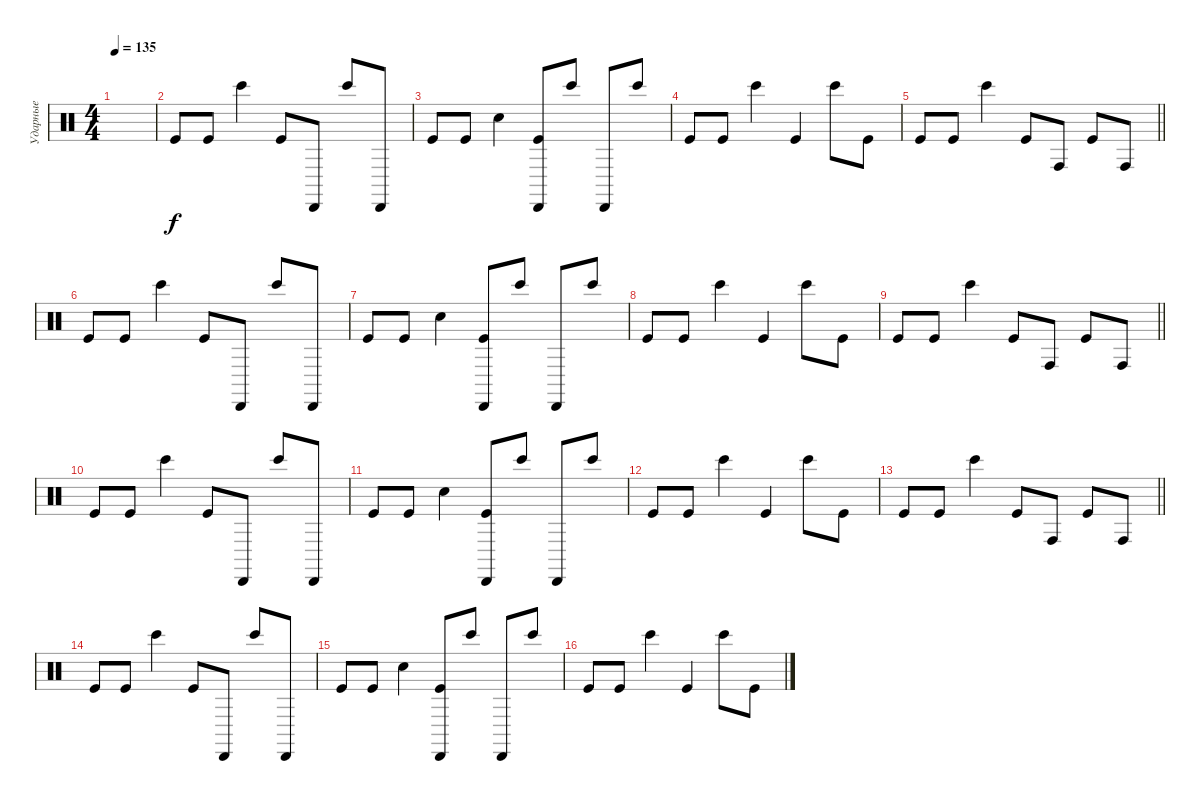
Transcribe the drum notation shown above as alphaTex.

\track ("Ударные" "Ударные") {instrument percussion}
\staff {score}
\articulation defaults
\ts (4 4)
\tempo 135
\clef neutral
\ks c
|
"Kick (hit)".8 "Kick (hit)".8 "Bongo High (hit)".4 "Kick (hit)".8 "Cabasa (hit)".8 "Bongo High (hit)".8 "Cabasa (hit)".8 |
"Kick (hit)".8 "Kick (hit)".8 "Hand Clap (hit)".4 ("Kick (hit)" "Cabasa (hit)").8 "Bongo High (hit)".8 "Cabasa (hit)".8 "Bongo High (hit)".8 |
"Kick (hit)".8 "Kick (hit)".8 "Bongo High (hit)".4 "Kick (hit)".4 "Bongo High (hit)".8 "Kick (hit)".8 |
\barLineRight lightlight "Kick (hit)".8 "Kick (hit)".8 "Bongo High (hit)".4 "Kick (hit)".8 "Conga high (hit)".8 "Kick (hit)".8 "Conga high (hit)".8
|
"Kick (hit)".8 "Kick (hit)".8 "Bongo High (hit)".4 "Kick (hit)".8 "Cabasa (hit)".8 "Bongo High (hit)".8 "Cabasa (hit)".8 |
"Kick (hit)".8 "Kick (hit)".8 "Hand Clap (hit)".4 ("Kick (hit)" "Cabasa (hit)").8 "Bongo High (hit)".8 "Cabasa (hit)".8 "Bongo High (hit)".8 |
"Kick (hit)".8 "Kick (hit)".8 "Bongo High (hit)".4 "Kick (hit)".4 "Bongo High (hit)".8 "Kick (hit)".8 |
\barLineRight lightlight "Kick (hit)".8 "Kick (hit)".8 "Bongo High (hit)".4 "Kick (hit)".8 "Conga high (hit)".8 "Kick (hit)".8 "Conga high (hit)".8
|
"Kick (hit)".8 "Kick (hit)".8 "Bongo High (hit)".4 "Kick (hit)".8 "Cabasa (hit)".8 "Bongo High (hit)".8 "Cabasa (hit)".8 |
"Kick (hit)".8 "Kick (hit)".8 "Hand Clap (hit)".4 ("Kick (hit)" "Cabasa (hit)").8 "Bongo High (hit)".8 "Cabasa (hit)".8 "Bongo High (hit)".8 |
"Kick (hit)".8 "Kick (hit)".8 "Bongo High (hit)".4 "Kick (hit)".4 "Bongo High (hit)".8 "Kick (hit)".8 |
\barLineRight lightlight "Kick (hit)".8 "Kick (hit)".8 "Bongo High (hit)".4 "Kick (hit)".8 "Conga high (hit)".8 "Kick (hit)".8 "Conga high (hit)".8
|
"Kick (hit)".8 "Kick (hit)".8 "Bongo High (hit)".4 "Kick (hit)".8 "Cabasa (hit)".8 "Bongo High (hit)".8 "Cabasa (hit)".8 |
"Kick (hit)".8 "Kick (hit)".8 "Hand Clap (hit)".4 ("Kick (hit)" "Cabasa (hit)").8 "Bongo High (hit)".8 "Cabasa (hit)".8 "Bongo High (hit)".8 |
"Kick (hit)".8 "Kick (hit)".8 "Bongo High (hit)".4 "Kick (hit)".4 "Bongo High (hit)".8 "Kick (hit)".8
